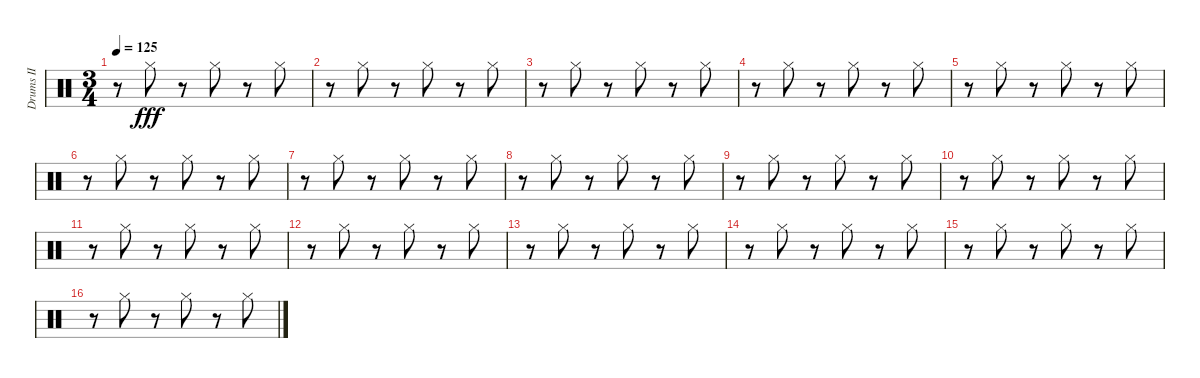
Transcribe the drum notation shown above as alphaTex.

\track ("Drums II" "Drums II") {instrument percussion}
\staff {score}
\articulation defaults
\ts (3 4)
\tempo 125
\clef neutral
\ks c
r.8{dy fff} "Hi-Hat (closed)".8 r.8 "Hi-Hat (closed)".8 r.8 "Hi-Hat (closed)".8 |
r.8 "Hi-Hat (closed)".8 r.8 "Hi-Hat (closed)".8 r.8 "Hi-Hat (closed)".8 |
r.8 "Hi-Hat (closed)".8 r.8 "Hi-Hat (closed)".8 r.8 "Hi-Hat (closed)".8 |
r.8 "Hi-Hat (closed)".8 r.8 "Hi-Hat (closed)".8 r.8 "Hi-Hat (closed)".8 |
r.8 "Hi-Hat (closed)".8 r.8 "Hi-Hat (closed)".8 r.8 "Hi-Hat (closed)".8 |
r.8 "Hi-Hat (closed)".8 r.8 "Hi-Hat (closed)".8 r.8 "Hi-Hat (closed)".8 |
r.8 "Hi-Hat (closed)".8 r.8 "Hi-Hat (closed)".8 r.8 "Hi-Hat (closed)".8 |
r.8 "Hi-Hat (closed)".8 r.8 "Hi-Hat (closed)".8 r.8 "Hi-Hat (closed)".8 |
r.8 "Hi-Hat (closed)".8 r.8 "Hi-Hat (closed)".8 r.8 "Hi-Hat (closed)".8 |
r.8 "Hi-Hat (closed)".8 r.8 "Hi-Hat (closed)".8 r.8 "Hi-Hat (closed)".8 |
r.8 "Hi-Hat (closed)".8 r.8 "Hi-Hat (closed)".8 r.8 "Hi-Hat (closed)".8 |
r.8 "Hi-Hat (closed)".8 r.8 "Hi-Hat (closed)".8 r.8 "Hi-Hat (closed)".8 |
r.8 "Hi-Hat (closed)".8 r.8 "Hi-Hat (closed)".8 r.8 "Hi-Hat (closed)".8 |
r.8 "Hi-Hat (closed)".8 r.8 "Hi-Hat (closed)".8 r.8 "Hi-Hat (closed)".8 |
r.8 "Hi-Hat (closed)".8 r.8 "Hi-Hat (closed)".8 r.8 "Hi-Hat (closed)".8 |
r.8 "Hi-Hat (closed)".8 r.8 "Hi-Hat (closed)".8 r.8 "Hi-Hat (closed)".8
